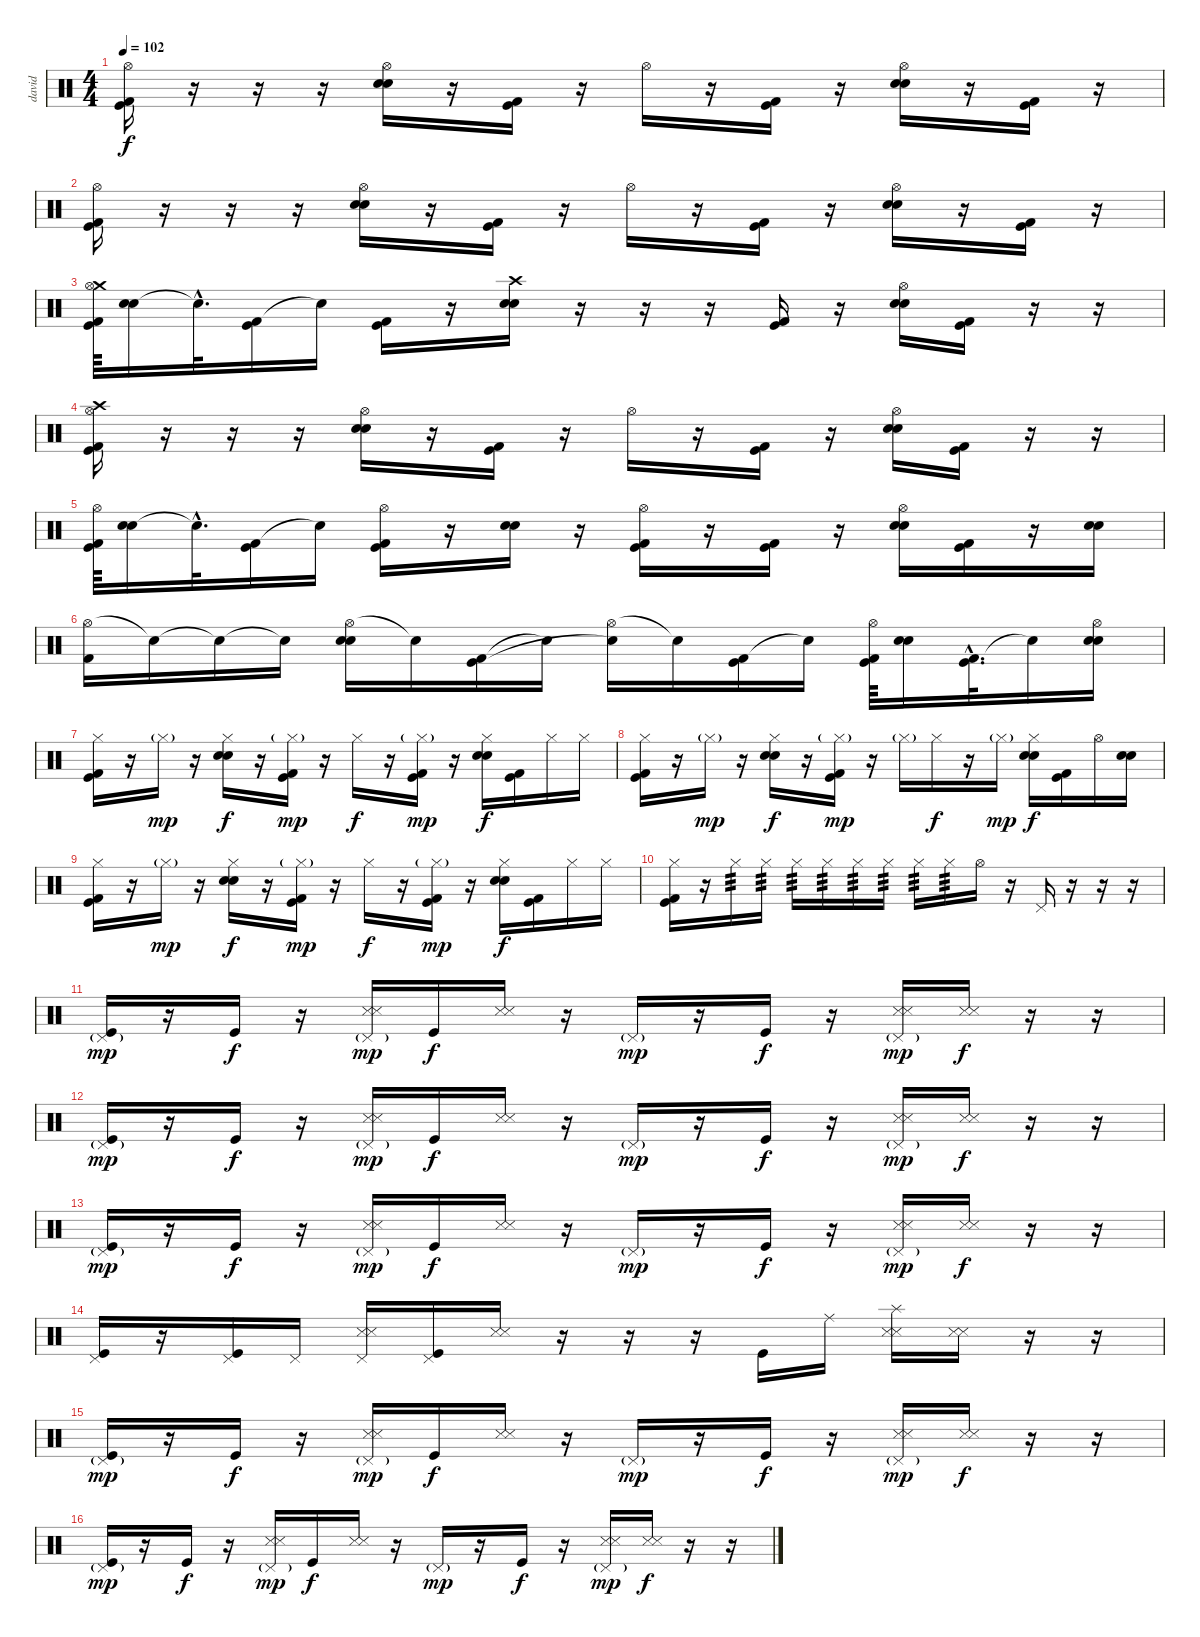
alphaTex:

\track ("david" "david") {instrument percussion}
\staff {score}
\articulation defaults
\ts (4 4)
\tempo 102
\clef neutral
\ks c
("Hi-Hat (open)" "Kick (hit) 2" "Kick (hit)").16{dy f} r.16 r.16 r.16 ("Hi-Hat (open)" "Electric Snare (hit)" "Snare (hit) 2").16 r.16 ("Kick (hit) 2" "Kick (hit)").16 r.16 "Hi-Hat (open)".16 r.16 ("Kick (hit) 2" "Kick (hit)").16 r.16 ("Hi-Hat (open)" "Electric Snare (hit)" "Snare (hit) 2").16 r.16 ("Kick (hit) 2" "Kick (hit)").16 r.16 |
("Hi-Hat (open)" "Kick (hit) 2" "Kick (hit)").16 r.16 r.16 r.16 ("Hi-Hat (open)" "Electric Snare (hit)" "Snare (hit) 2").16 r.16 ("Kick (hit) 2" "Kick (hit)").16 r.16 "Hi-Hat (open)".16 r.16 ("Kick (hit) 2" "Kick (hit)").16 r.16 ("Hi-Hat (open)" "Electric Snare (hit)" "Snare (hit) 2").16 r.16 ("Kick (hit) 2" "Kick (hit)").16 r.16 |
("Crash medium (hit)" "Hi-Hat (open)" "Kick (hit) 2" "Kick (hit)").64 ("Electric Snare (hit)" "Snare (hit) 2").16 "Snare (hit)"{hac t}.32{d} ("Kick (hit) 2" "Kick (hit)").16 "Snare (hit)"{t}.16 ("Kick (hit) 2" "Kick (hit)").16 r.16 ("Crash high (hit)" "Electric Snare (hit)" "Snare (hit) 2").16 r.16 r.16 r.16 ("Kick (hit) 2" "Kick (hit)").16 r.16 ("Hi-Hat (open)" "Electric Snare (hit)" "Snare (hit) 2").16 ("Kick (hit) 2" "Kick (hit)").16 r.16 r.16 |
("Hi-Hat (open)" "Crash high (hit)" "Kick (hit) 2" "Kick (hit)").16 r.16 r.16 r.16 ("Hi-Hat (open)" "Electric Snare (hit)" "Snare (hit) 2").16 r.16 ("Kick (hit) 2" "Kick (hit)").16 r.16 "Hi-Hat (open)".16 r.16 ("Kick (hit) 2" "Kick (hit)").16 r.16 ("Hi-Hat (open)" "Electric Snare (hit)" "Snare (hit) 2").16 ("Kick (hit) 2" "Kick (hit)").16 r.16 r.16 |
("Hi-Hat (open)" "Kick (hit) 2" "Kick (hit)").64 ("Electric Snare (hit)" "Snare (hit) 2").16 "Snare (hit)"{hac t}.32{d} ("Kick (hit) 2" "Kick (hit)").16 "Snare (hit)"{t}.16 ("Hi-Hat (open)" "Kick (hit) 2" "Kick (hit)").16 r.16 ("Electric Snare (hit)" "Snare (hit) 2").16 r.16 ("Hi-Hat (open)" "Kick (hit) 2" "Kick (hit)").16 r.16 ("Kick (hit) 2" "Kick (hit)").16 r.16 ("Hi-Hat (open)" "Electric Snare (hit)" "Snare (hit) 2").16 ("Kick (hit) 2" "Kick (hit)").16 r.16 ("Electric Snare (hit)" "Snare (hit) 2").16 |
("Hi-Hat (open)" "Kick (hit) 2").16 "Snare (hit)"{t}.16 "Snare (hit)"{t}.16 "Snare (hit)"{t}.16 ("Hi-Hat (open)" "Electric Snare (hit)" "Snare (hit) 2").16 "Snare (hit)"{t}.16 ("Kick (hit) 2" "Kick (hit)").16 "Snare (hit)"{t}.16 ("Hi-Hat (open)" "Snare (hit)"{t}).16 "Snare (hit)"{t}.16 ("Kick (hit) 2" "Kick (hit)").16 "Snare (hit)"{t}.16 ("Hi-Hat (open)" "Kick (hit) 2" "Kick (hit)").64 ("Electric Snare (hit)" "Snare (hit) 2").16 ("Kick (hit) 2"{hac} "Kick (hit)"{hac}).32{d} "Snare (hit)"{t}.16 ("Hi-Hat (open)" "Electric Snare (hit)" "Snare (hit) 2").16 |
("Hi-Hat (closed)" "Kick (hit) 2" "Kick (hit)").16 r.16 "Hi-Hat (closed)"{g}.16{dy mp} r.16 ("Hi-Hat (closed)" "Electric Snare (hit)" "Snare (hit) 2").16{dy f} r.16 ("Hi-Hat (closed)"{g} "Kick (hit) 2" "Kick (hit)").16{dy mp} r.16 "Hi-Hat (closed)".16{dy f} r.16 ("Hi-Hat (closed)"{g} "Kick (hit) 2" "Kick (hit)").16{dy mp} r.16 ("Hi-Hat (closed)" "Electric Snare (hit)" "Snare (hit) 2").16{dy f} ("Kick (hit) 2" "Kick (hit)").16 "Hi-Hat (closed)".16 "Hi-Hat (closed)".16 |
("Hi-Hat (closed)" "Kick (hit) 2" "Kick (hit)").16 r.16 "Hi-Hat (closed)"{g}.16{dy mp} r.16 ("Hi-Hat (closed)" "Electric Snare (hit)" "Snare (hit) 2").16{dy f} r.16 ("Hi-Hat (closed)"{g} "Kick (hit) 2" "Kick (hit)").16{dy mp} r.16 "Hi-Hat (closed)"{g}.16 "Hi-Hat (closed)".16{dy f} r.16 "Hi-Hat (closed)"{g}.16{dy mp} ("Hi-Hat (closed)" "Electric Snare (hit)" "Snare (hit) 2").16{dy f} ("Kick (hit) 2" "Kick (hit)").16 "Hi-Hat (open)".16 ("Electric Snare (hit)" "Snare (hit) 2").16 |
("Hi-Hat (closed)" "Kick (hit) 2" "Kick (hit)").16 r.16 "Hi-Hat (closed)"{g}.16{dy mp} r.16 ("Hi-Hat (closed)" "Electric Snare (hit)" "Snare (hit) 2").16{dy f} r.16 ("Hi-Hat (closed)"{g} "Kick (hit) 2" "Kick (hit)").16{dy mp} r.16 "Hi-Hat (closed)".16{dy f} r.16 ("Hi-Hat (closed)"{g} "Kick (hit) 2" "Kick (hit)").16{dy mp} r.16 ("Hi-Hat (closed)" "Electric Snare (hit)" "Snare (hit) 2").16{dy f} ("Kick (hit) 2" "Kick (hit)").16 "Hi-Hat (closed)".16 "Hi-Hat (closed)".16 |
("Hi-Hat (closed)" "Kick (hit) 2" "Kick (hit)").16 r.16 "Hi-Hat (closed)".16{tp 3} "Hi-Hat (closed)".16{tp 3} "Hi-Hat (closed)".16{tp 3} "Hi-Hat (closed)".16{tp 3} "Hi-Hat (closed)".16{tp 3} "Hi-Hat (closed)".16{tp 3} "Hi-Hat (closed)".16{tp 3} "Hi-Hat (closed)".16{tp 3} "Hi-Hat (open)".16 r.16 "Pedal Hi-Hat (hit)".16 r.16 r.16 r.16 |
("Pedal Hi-Hat (hit)"{g} "Kick (hit)").16{dy mp} r.16 "Kick (hit)".16{dy f} r.16 ("Pedal Hi-Hat (hit)"{g} "Metronome (hit)" "Snare (side stick) 3").16{dy mp} "Kick (hit)".16{dy f} ("Metronome (hit)" "Snare (side stick) 3").16 r.16 "Pedal Hi-Hat (hit)"{g}.16{dy mp} r.16 "Kick (hit)".16{dy f} r.16 ("Pedal Hi-Hat (hit)"{g} "Metronome (hit)" "Snare (side stick) 3").16{dy mp} ("Metronome (hit)" "Snare (side stick) 3").16{dy f} r.16 r.16 |
("Pedal Hi-Hat (hit)"{g} "Kick (hit)").16{dy mp} r.16 "Kick (hit)".16{dy f} r.16 ("Pedal Hi-Hat (hit)"{g} "Metronome (hit)" "Snare (side stick) 3").16{dy mp} "Kick (hit)".16{dy f} ("Metronome (hit)" "Snare (side stick) 3").16 r.16 "Pedal Hi-Hat (hit)"{g}.16{dy mp} r.16 "Kick (hit)".16{dy f} r.16 ("Pedal Hi-Hat (hit)"{g} "Metronome (hit)" "Snare (side stick) 3").16{dy mp} ("Metronome (hit)" "Snare (side stick) 3").16{dy f} r.16 r.16 |
("Pedal Hi-Hat (hit)"{g} "Kick (hit)").16{dy mp} r.16 "Kick (hit)".16{dy f} r.16 ("Pedal Hi-Hat (hit)"{g} "Metronome (hit)" "Snare (side stick) 3").16{dy mp} "Kick (hit)".16{dy f} ("Metronome (hit)" "Snare (side stick) 3").16 r.16 "Pedal Hi-Hat (hit)"{g}.16{dy mp} r.16 "Kick (hit)".16{dy f} r.16 ("Pedal Hi-Hat (hit)"{g} "Metronome (hit)" "Snare (side stick) 3").16{dy mp} ("Metronome (hit)" "Snare (side stick) 3").16{dy f} r.16 r.16 |
("Pedal Hi-Hat (hit)" "Kick (hit)").16 r.16 ("Pedal Hi-Hat (hit)" "Kick (hit)").16 "Pedal Hi-Hat (hit)".16 ("Pedal Hi-Hat (hit)" "Metronome (hit)" "Snare (side stick) 3").16 ("Pedal Hi-Hat (hit)" "Kick (hit)").16 ("Metronome (hit)" "Snare (side stick) 3").16 r.16 r.16 r.16 "Kick (hit)".16 "Ride (middle)".16 ("Splash (hit)" "Metronome (hit)" "Snare (side stick) 3").16 ("Metronome (hit)" "Snare (side stick) 3").16 r.16 r.16 |
("Pedal Hi-Hat (hit)"{g} "Kick (hit)").16{dy mp} r.16 "Kick (hit)".16{dy f} r.16 ("Pedal Hi-Hat (hit)"{g} "Metronome (hit)" "Snare (side stick) 3").16{dy mp} "Kick (hit)".16{dy f} ("Metronome (hit)" "Snare (side stick) 3").16 r.16 "Pedal Hi-Hat (hit)"{g}.16{dy mp} r.16 "Kick (hit)".16{dy f} r.16 ("Pedal Hi-Hat (hit)"{g} "Metronome (hit)" "Snare (side stick) 3").16{dy mp} ("Metronome (hit)" "Snare (side stick) 3").16{dy f} r.16 r.16 |
("Pedal Hi-Hat (hit)"{g} "Kick (hit)").16{dy mp} r.16 "Kick (hit)".16{dy f} r.16 ("Pedal Hi-Hat (hit)"{g} "Metronome (hit)" "Snare (side stick) 3").16{dy mp} "Kick (hit)".16{dy f} ("Metronome (hit)" "Snare (side stick) 3").16 r.16 "Pedal Hi-Hat (hit)"{g}.16{dy mp} r.16 "Kick (hit)".16{dy f} r.16 ("Pedal Hi-Hat (hit)"{g} "Metronome (hit)" "Snare (side stick) 3").16{dy mp} ("Metronome (hit)" "Snare (side stick) 3").16{dy f} r.16 r.16
